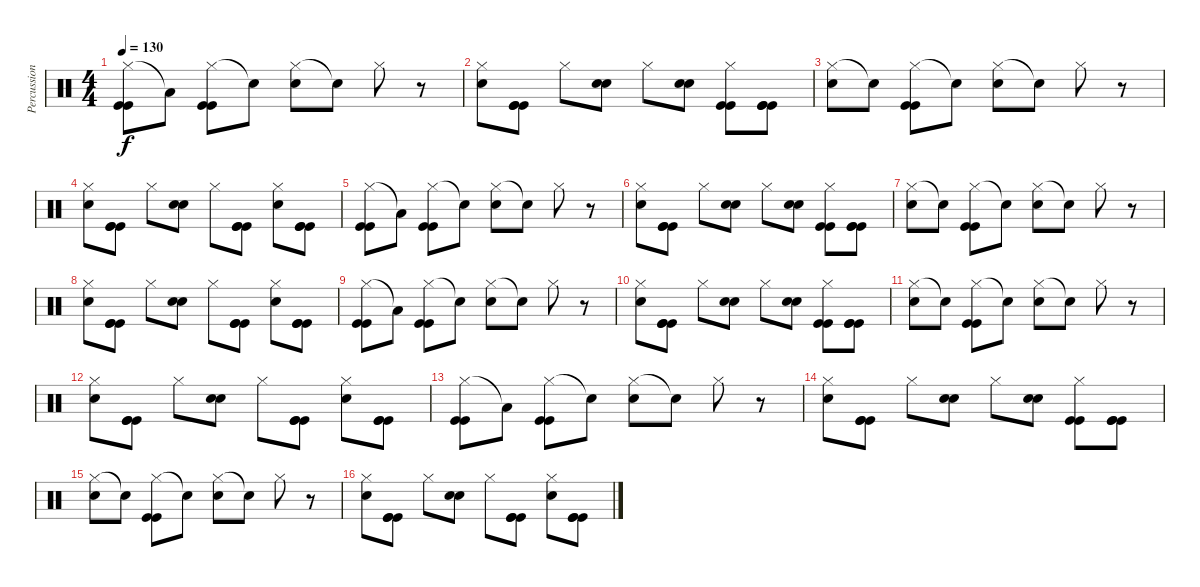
\track ("Percussion" "Percussion") {instrument percussion}
\staff {score}
\articulation defaults
\ts (4 4)
\tempo 130
\clef neutral
\ks c
("Hi-Hat (closed)" "Kick (hit)" "Kick (hit)").8{dy f} "Low Tom (hit)"{t}.8 ("Hi-Hat (closed)" "Kick (hit)" "Kick (hit)").8 "Snare (hit)"{t}.8 ("Hi-Hat (closed)" "Electric Snare (hit)").8 "Snare (hit)"{t}.8 "Hi-Hat (closed)".8 r.8 |
("Hi-Hat (closed)" "Electric Snare (hit)").8 ("Kick (hit)" "Kick (hit)" "Kick (hit)").8 "Hi-Hat (closed)".8 ("Electric Snare (hit)" "Electric Snare (hit)").8 "Hi-Hat (closed)".8 ("Electric Snare (hit)" "Electric Snare (hit)").8 ("Hi-Hat (closed)" "Kick (hit)" "Kick (hit)").8 ("Kick (hit)" "Kick (hit)" "Kick (hit)").8 |
("Hi-Hat (closed)" "Electric Snare (hit)").8 "Snare (hit)"{t}.8 ("Hi-Hat (closed)" "Kick (hit)" "Kick (hit)").8 "Snare (hit)"{t}.8 ("Hi-Hat (closed)" "Electric Snare (hit)").8 "Snare (hit)"{t}.8 "Hi-Hat (closed)".8 r.8 |
("Hi-Hat (closed)" "Electric Snare (hit)").8 ("Kick (hit)" "Kick (hit)" "Kick (hit)").8 "Hi-Hat (closed)".8 ("Electric Snare (hit)" "Electric Snare (hit)").8 "Hi-Hat (closed)".8 ("Kick (hit)" "Kick (hit)" "Kick (hit)").8 ("Hi-Hat (closed)" "Electric Snare (hit)").8 ("Kick (hit)" "Kick (hit)" "Kick (hit)").8 |
("Hi-Hat (closed)" "Kick (hit)" "Kick (hit)").8 "Low Tom (hit)"{t}.8 ("Hi-Hat (closed)" "Kick (hit)" "Kick (hit)").8 "Snare (hit)"{t}.8 ("Hi-Hat (closed)" "Electric Snare (hit)").8 "Snare (hit)"{t}.8 "Hi-Hat (closed)".8 r.8 |
("Hi-Hat (closed)" "Electric Snare (hit)").8 ("Kick (hit)" "Kick (hit)" "Kick (hit)").8 "Hi-Hat (closed)".8 ("Electric Snare (hit)" "Electric Snare (hit)").8 "Hi-Hat (closed)".8 ("Electric Snare (hit)" "Electric Snare (hit)").8 ("Hi-Hat (closed)" "Kick (hit)" "Kick (hit)").8 ("Kick (hit)" "Kick (hit)" "Kick (hit)").8 |
("Hi-Hat (closed)" "Electric Snare (hit)").8 "Snare (hit)"{t}.8 ("Hi-Hat (closed)" "Kick (hit)" "Kick (hit)").8 "Snare (hit)"{t}.8 ("Hi-Hat (closed)" "Electric Snare (hit)").8 "Snare (hit)"{t}.8 "Hi-Hat (closed)".8 r.8 |
("Hi-Hat (closed)" "Electric Snare (hit)").8 ("Kick (hit)" "Kick (hit)" "Kick (hit)").8 "Hi-Hat (closed)".8 ("Electric Snare (hit)" "Electric Snare (hit)").8 "Hi-Hat (closed)".8 ("Kick (hit)" "Kick (hit)" "Kick (hit)").8 ("Hi-Hat (closed)" "Electric Snare (hit)").8 ("Kick (hit)" "Kick (hit)" "Kick (hit)").8 |
("Hi-Hat (closed)" "Kick (hit)" "Kick (hit)").8 "Low Tom (hit)"{t}.8 ("Hi-Hat (closed)" "Kick (hit)" "Kick (hit)").8 "Snare (hit)"{t}.8 ("Hi-Hat (closed)" "Electric Snare (hit)").8 "Snare (hit)"{t}.8 "Hi-Hat (closed)".8 r.8 |
("Hi-Hat (closed)" "Electric Snare (hit)").8 ("Kick (hit)" "Kick (hit)" "Kick (hit)").8 "Hi-Hat (closed)".8 ("Electric Snare (hit)" "Electric Snare (hit)").8 "Hi-Hat (closed)".8 ("Electric Snare (hit)" "Electric Snare (hit)").8 ("Hi-Hat (closed)" "Kick (hit)" "Kick (hit)").8 ("Kick (hit)" "Kick (hit)" "Kick (hit)").8 |
("Hi-Hat (closed)" "Electric Snare (hit)").8 "Snare (hit)"{t}.8 ("Hi-Hat (closed)" "Kick (hit)" "Kick (hit)").8 "Snare (hit)"{t}.8 ("Hi-Hat (closed)" "Electric Snare (hit)").8 "Snare (hit)"{t}.8 "Hi-Hat (closed)".8 r.8 |
("Hi-Hat (closed)" "Electric Snare (hit)").8 ("Kick (hit)" "Kick (hit)" "Kick (hit)").8 "Hi-Hat (closed)".8 ("Electric Snare (hit)" "Electric Snare (hit)").8 "Hi-Hat (closed)".8 ("Kick (hit)" "Kick (hit)" "Kick (hit)").8 ("Hi-Hat (closed)" "Electric Snare (hit)").8 ("Kick (hit)" "Kick (hit)" "Kick (hit)").8 |
("Hi-Hat (closed)" "Kick (hit)" "Kick (hit)").8 "Low Tom (hit)"{t}.8 ("Hi-Hat (closed)" "Kick (hit)" "Kick (hit)").8 "Snare (hit)"{t}.8 ("Hi-Hat (closed)" "Electric Snare (hit)").8 "Snare (hit)"{t}.8 "Hi-Hat (closed)".8 r.8 |
("Hi-Hat (closed)" "Electric Snare (hit)").8 ("Kick (hit)" "Kick (hit)" "Kick (hit)").8 "Hi-Hat (closed)".8 ("Electric Snare (hit)" "Electric Snare (hit)").8 "Hi-Hat (closed)".8 ("Electric Snare (hit)" "Electric Snare (hit)").8 ("Hi-Hat (closed)" "Kick (hit)" "Kick (hit)").8 ("Kick (hit)" "Kick (hit)" "Kick (hit)").8 |
("Hi-Hat (closed)" "Electric Snare (hit)").8 "Snare (hit)"{t}.8 ("Hi-Hat (closed)" "Kick (hit)" "Kick (hit)").8 "Snare (hit)"{t}.8 ("Hi-Hat (closed)" "Electric Snare (hit)").8 "Snare (hit)"{t}.8 "Hi-Hat (closed)".8 r.8 |
("Hi-Hat (closed)" "Electric Snare (hit)").8 ("Kick (hit)" "Kick (hit)" "Kick (hit)").8 "Hi-Hat (closed)".8 ("Electric Snare (hit)" "Electric Snare (hit)").8 "Hi-Hat (closed)".8 ("Kick (hit)" "Kick (hit)" "Kick (hit)").8 ("Hi-Hat (closed)" "Electric Snare (hit)").8 ("Kick (hit)" "Kick (hit)" "Kick (hit)").8
